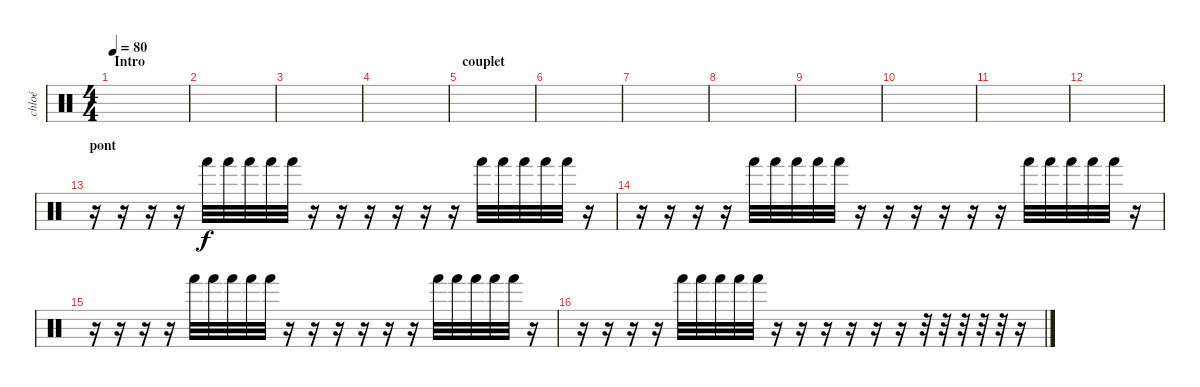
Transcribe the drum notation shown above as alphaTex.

\track ("chloé" "chloé") {instrument percussion}
\staff {score}
\articulation defaults
\ts (4 4)
\section ("" "Intro")
\tempo 80
\clef neutral
\ks c
|
|
|
|
\section ("" "couplet")
|
|
|
|
|
|
|
|
\section ("" "pont")
r.16 r.16 r.16 r.16 "Hand (hit)".32 "Hand (hit)".32 "Hand (hit)".32 "Hand (hit)".32 "Hand (hit)".32 r.16 r.16 r.16 r.16 r.16 r.16 "Hand (hit)".32 "Hand (hit)".32 "Hand (hit)".32 "Hand (hit)".32 "Hand (hit)".32 r.16 |
r.16 r.16 r.16 r.16 "Hand (hit)".32 "Hand (hit)".32 "Hand (hit)".32 "Hand (hit)".32 "Hand (hit)".32 r.16 r.16 r.16 r.16 r.16 r.16 "Hand (hit)".32 "Hand (hit)".32 "Hand (hit)".32 "Hand (hit)".32 "Hand (hit)".32 r.16 |
r.16 r.16 r.16 r.16 "Hand (hit)".32 "Hand (hit)".32 "Hand (hit)".32 "Hand (hit)".32 "Hand (hit)".32 r.16 r.16 r.16 r.16 r.16 r.16 "Hand (hit)".32 "Hand (hit)".32 "Hand (hit)".32 "Hand (hit)".32 "Hand (hit)".32 r.16 |
r.16 r.16 r.16 r.16 "Hand (hit)".32 "Hand (hit)".32 "Hand (hit)".32 "Hand (hit)".32 "Hand (hit)".32 r.16 r.16 r.16 r.16 r.16 r.16 r.32 r.32 r.32 r.32 r.32 r.16
